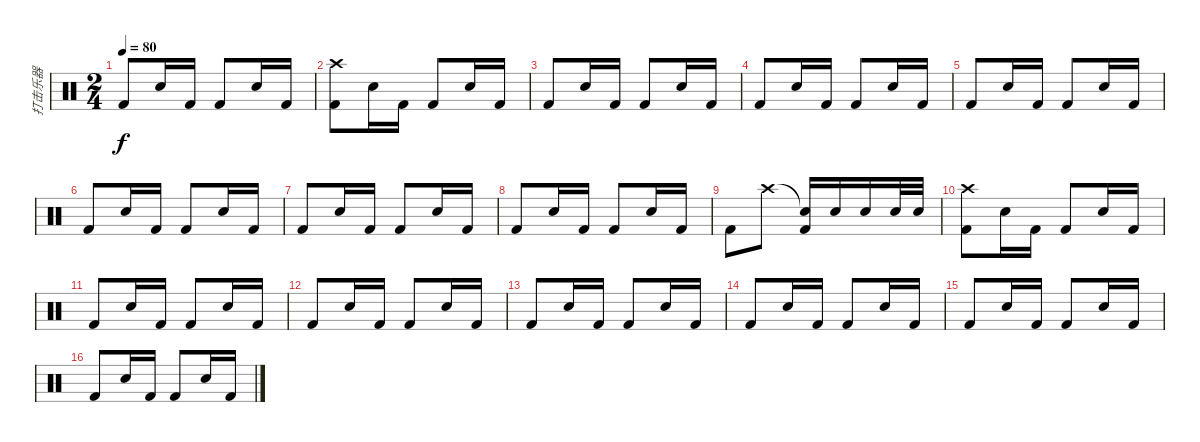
\track ("打击乐器" "打击乐器") {instrument percussion}
\staff {score}
\articulation defaults
\ts (2 4)
\tempo 80
\clef neutral
\ks c "Kick (hit) 2".8{dy f} "Electric Snare (hit)".16 "Kick (hit) 2".16 "Kick (hit) 2".8 "Electric Snare (hit)".16 "Kick (hit) 2".16
|
("Crash high (hit)" "Kick (hit) 2").8 "Electric Snare (hit)".16 "Kick (hit) 2".16 "Kick (hit) 2".8 "Electric Snare (hit)".16 "Kick (hit) 2".16 |
"Kick (hit) 2".8 "Electric Snare (hit)".16 "Kick (hit) 2".16 "Kick (hit) 2".8 "Electric Snare (hit)".16 "Kick (hit) 2".16 |
"Kick (hit) 2".8 "Electric Snare (hit)".16 "Kick (hit) 2".16 "Kick (hit) 2".8 "Electric Snare (hit)".16 "Kick (hit) 2".16 |
"Kick (hit) 2".8 "Electric Snare (hit)".16 "Kick (hit) 2".16 "Kick (hit) 2".8 "Electric Snare (hit)".16 "Kick (hit) 2".16 |
"Kick (hit) 2".8 "Electric Snare (hit)".16 "Kick (hit) 2".16 "Kick (hit) 2".8 "Electric Snare (hit)".16 "Kick (hit) 2".16 |
"Kick (hit) 2".8 "Electric Snare (hit)".16 "Kick (hit) 2".16 "Kick (hit) 2".8 "Electric Snare (hit)".16 "Kick (hit) 2".16 |
"Kick (hit) 2".8 "Electric Snare (hit)".16 "Kick (hit) 2".16 "Kick (hit) 2".8 "Electric Snare (hit)".16 "Kick (hit) 2".16 |
"Kick (hit) 2".8 "Crash high (hit)".8 ("Snare (hit)"{t} "Kick (hit) 2").16 "Snare (hit) 2".16 "Snare (hit) 2".16 "Snare (hit) 2".32 "Snare (hit) 2".32 |
("Crash high (hit)" "Kick (hit) 2").8 "Electric Snare (hit)".16 "Kick (hit) 2".16 "Kick (hit) 2".8 "Electric Snare (hit)".16 "Kick (hit) 2".16 |
"Kick (hit) 2".8 "Electric Snare (hit)".16 "Kick (hit) 2".16 "Kick (hit) 2".8 "Electric Snare (hit)".16 "Kick (hit) 2".16 |
"Kick (hit) 2".8 "Electric Snare (hit)".16 "Kick (hit) 2".16 "Kick (hit) 2".8 "Electric Snare (hit)".16 "Kick (hit) 2".16 |
"Kick (hit) 2".8 "Electric Snare (hit)".16 "Kick (hit) 2".16 "Kick (hit) 2".8 "Electric Snare (hit)".16 "Kick (hit) 2".16 |
"Kick (hit) 2".8 "Electric Snare (hit)".16 "Kick (hit) 2".16 "Kick (hit) 2".8 "Electric Snare (hit)".16 "Kick (hit) 2".16 |
"Kick (hit) 2".8 "Electric Snare (hit)".16 "Kick (hit) 2".16 "Kick (hit) 2".8 "Electric Snare (hit)".16 "Kick (hit) 2".16 |
"Kick (hit) 2".8 "Electric Snare (hit)".16 "Kick (hit) 2".16 "Kick (hit) 2".8 "Electric Snare (hit)".16 "Kick (hit) 2".16
